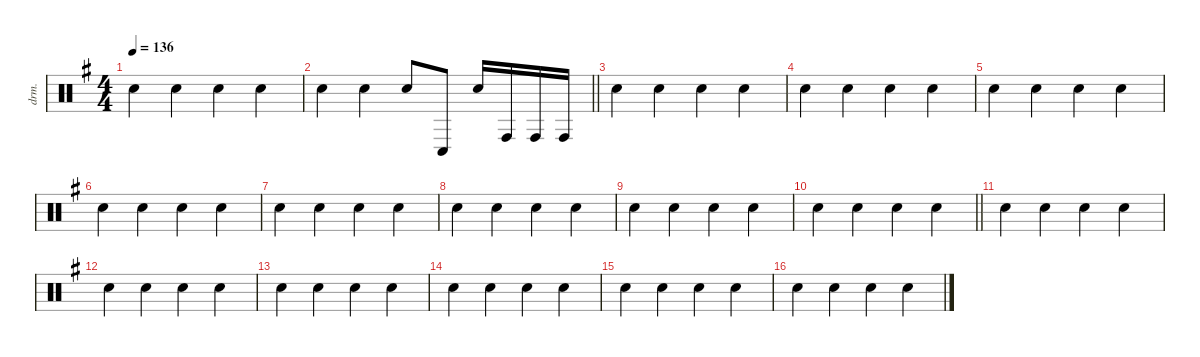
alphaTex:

\defaultSystemsLayout 4
\hideDynamics
\bracketExtendMode nobrackets
\otherSystemsTrackNameOrientation horizontal
\track ("Percussions" "drm.") {instrument percussion}
\staff {score}
\articulation defaults
\ts (4 4)
\tempo 136
\clef neutral
\ks g "Hand Clap (hit)"{acc forcenatural}.4{dy f beam Down} "Hand Clap (hit)"{acc forcenatural}.4{beam Down} "Hand Clap (hit)"{acc forcenatural}.4{beam Down} "Hand Clap (hit)"{acc forcenatural}.4{beam Down}
|
\barLineRight lightlight "Hand Clap (hit)"{acc forcenatural}.4{beam Down} "Hand Clap (hit)"{acc forcenatural}.4{beam Down} "Hand Clap (hit)"{acc forcenatural}.8{beam Up} "Conga low (hit)"{acc forcenatural}.8{beam Up} "Hand Clap (hit)"{acc forcenatural}.16{beam Up} "Conga high (hit)"{acc forcenatural}.16{beam Up} "Conga high (hit)"{acc forcenatural}.16{beam Up} "Conga high (hit)"{acc forcenatural}.16{beam Up}
|
"Hand Clap (hit)"{acc forcenatural}.4{beam Down} "Hand Clap (hit)"{acc forcenatural}.4{beam Down} "Hand Clap (hit)"{acc forcenatural}.4{beam Down} "Hand Clap (hit)"{acc forcenatural}.4{beam Down} |
"Hand Clap (hit)"{acc forcenatural}.4{beam Down} "Hand Clap (hit)"{acc forcenatural}.4{beam Down} "Hand Clap (hit)"{acc forcenatural}.4{beam Down} "Hand Clap (hit)"{acc forcenatural}.4{beam Down} |
"Hand Clap (hit)"{acc forcenatural}.4{beam Down} "Hand Clap (hit)"{acc forcenatural}.4{beam Down} "Hand Clap (hit)"{acc forcenatural}.4{beam Down} "Hand Clap (hit)"{acc forcenatural}.4{beam Down} |
"Hand Clap (hit)"{acc forcenatural}.4{beam Down} "Hand Clap (hit)"{acc forcenatural}.4{beam Down} "Hand Clap (hit)"{acc forcenatural}.4{beam Down} "Hand Clap (hit)"{acc forcenatural}.4{beam Down} |
"Hand Clap (hit)"{acc forcenatural}.4{beam Down} "Hand Clap (hit)"{acc forcenatural}.4{beam Down} "Hand Clap (hit)"{acc forcenatural}.4{beam Down} "Hand Clap (hit)"{acc forcenatural}.4{beam Down} |
"Hand Clap (hit)"{acc forcenatural}.4{beam Down} "Hand Clap (hit)"{acc forcenatural}.4{beam Down} "Hand Clap (hit)"{acc forcenatural}.4{beam Down} "Hand Clap (hit)"{acc forcenatural}.4{beam Down} |
"Hand Clap (hit)"{acc forcenatural}.4{beam Down} "Hand Clap (hit)"{acc forcenatural}.4{beam Down} "Hand Clap (hit)"{acc forcenatural}.4{beam Down} "Hand Clap (hit)"{acc forcenatural}.4{beam Down} |
\barLineRight lightlight "Hand Clap (hit)"{acc forcenatural}.4{beam Down} "Hand Clap (hit)"{acc forcenatural}.4{beam Down} "Hand Clap (hit)"{acc forcenatural}.4{beam Down} "Hand Clap (hit)"{acc forcenatural}.4{beam Down}
|
"Hand Clap (hit)"{acc forcenatural}.4{beam Down} "Hand Clap (hit)"{acc forcenatural}.4{beam Down} "Hand Clap (hit)"{acc forcenatural}.4{beam Down} "Hand Clap (hit)"{acc forcenatural}.4{beam Down} |
"Hand Clap (hit)"{acc forcenatural}.4{beam Down} "Hand Clap (hit)"{acc forcenatural}.4{beam Down} "Hand Clap (hit)"{acc forcenatural}.4{beam Down} "Hand Clap (hit)"{acc forcenatural}.4{beam Down} |
"Hand Clap (hit)"{acc forcenatural}.4{beam Down} "Hand Clap (hit)"{acc forcenatural}.4{beam Down} "Hand Clap (hit)"{acc forcenatural}.4{beam Down} "Hand Clap (hit)"{acc forcenatural}.4{beam Down} |
"Hand Clap (hit)"{acc forcenatural}.4{beam Down} "Hand Clap (hit)"{acc forcenatural}.4{beam Down} "Hand Clap (hit)"{acc forcenatural}.4{beam Down} "Hand Clap (hit)"{acc forcenatural}.4{beam Down} |
"Hand Clap (hit)"{acc forcenatural}.4{beam Down} "Hand Clap (hit)"{acc forcenatural}.4{beam Down} "Hand Clap (hit)"{acc forcenatural}.4{beam Down} "Hand Clap (hit)"{acc forcenatural}.4{beam Down} |
"Hand Clap (hit)"{acc forcenatural}.4{beam Down} "Hand Clap (hit)"{acc forcenatural}.4{beam Down} "Hand Clap (hit)"{acc forcenatural}.4{beam Down} "Hand Clap (hit)"{acc forcenatural}.4{beam Down}
